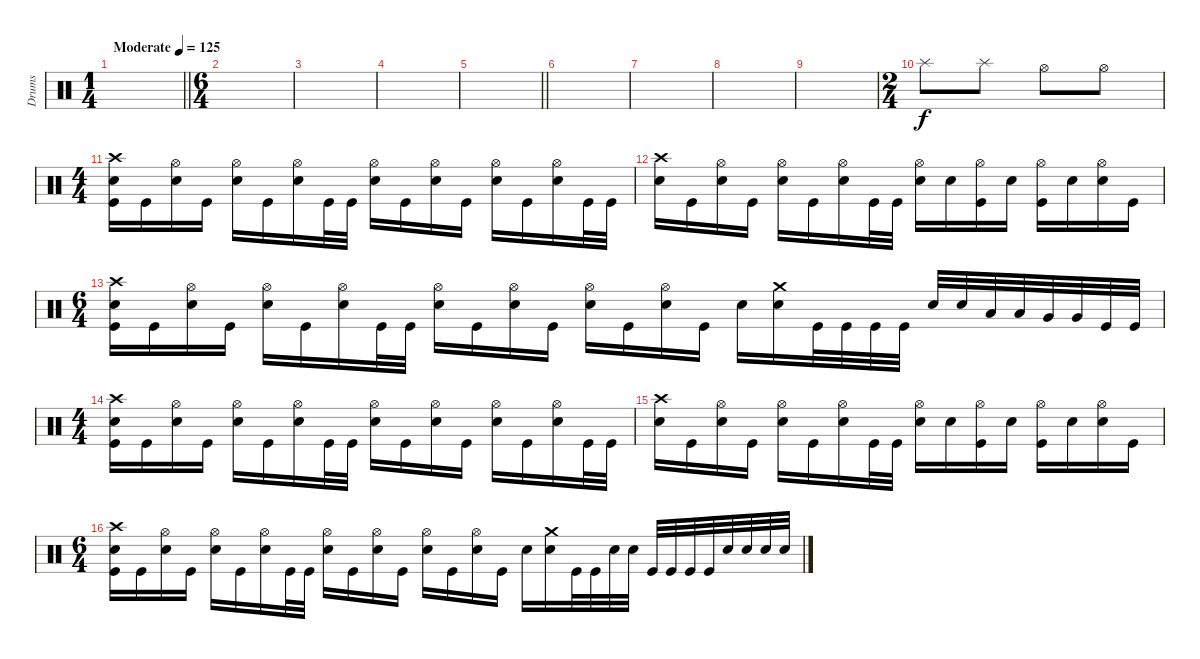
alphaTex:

\track ("Drums" "Drums") {instrument percussion}
\staff
\articulation defaults
\ts (1 4)
\tempo (125 "Moderate")
\clef neutral
\barLineRight lightlight
\ks c
|
\ts (6 4)
|
|
|
\barLineRight lightlight
|
|
|
|
|
\ts (2 4)
"Splash (hit)".8 "Splash (hit)".8 "Hi-Hat (open)".8 "Hi-Hat (open)".8 |
\ts (4 4)
("Crash high (hit)" "Electric Snare (hit)" "Kick (hit)").16 "Kick (hit)".16 ("Hi-Hat (open)" "Electric Snare (hit)").16 "Kick (hit)".16 ("Hi-Hat (open)" "Electric Snare (hit)").16 "Kick (hit)".16 ("Hi-Hat (open)" "Electric Snare (hit)").16 "Kick (hit)".32 "Kick (hit)".32 ("Hi-Hat (open)" "Electric Snare (hit)").16 "Kick (hit)".16 ("Hi-Hat (open)" "Electric Snare (hit)").16 "Kick (hit)".16 ("Hi-Hat (open)" "Electric Snare (hit)").16 "Kick (hit)".16 ("Hi-Hat (open)" "Electric Snare (hit)").16 "Kick (hit)".32 "Kick (hit)".32 |
("Crash high (hit)" "Electric Snare (hit)").16 "Kick (hit)".16 ("Hi-Hat (open)" "Electric Snare (hit)").16 "Kick (hit)".16 ("Hi-Hat (open)" "Electric Snare (hit)").16 "Kick (hit)".16 ("Hi-Hat (open)" "Electric Snare (hit)").16 "Kick (hit)".32 "Kick (hit)".32 ("Hi-Hat (open)" "Electric Snare (hit)").16 "Electric Snare (hit)".16 ("Hi-Hat (open)" "Kick (hit)").16 "Electric Snare (hit)".16 ("Hi-Hat (open)" "Kick (hit)").16 "Electric Snare (hit)".16 ("Hi-Hat (open)" "Electric Snare (hit)").16 "Kick (hit)".16 |
\ts (6 4)
("Crash high (hit)" "Electric Snare (hit)" "Kick (hit)").16 "Kick (hit)".16 ("Hi-Hat (open)" "Electric Snare (hit)").16 "Kick (hit)".16 ("Hi-Hat (open)" "Electric Snare (hit)").16 "Kick (hit)".16 ("Hi-Hat (open)" "Electric Snare (hit)").16 "Kick (hit)".32 "Kick (hit)".32 ("Hi-Hat (open)" "Electric Snare (hit)").16 "Kick (hit)".16 ("Hi-Hat (open)" "Electric Snare (hit)").16 "Kick (hit)".16 ("Hi-Hat (open)" "Electric Snare (hit)").16 "Kick (hit)".16 ("Hi-Hat (open)" "Electric Snare (hit)").16 "Kick (hit)".16 "Electric Snare (hit)".16 ("Crash medium (hit)" "Electric Snare (hit)").16 "Kick (hit)".32 "Kick (hit)".32 "Kick (hit)".32 "Kick (hit)".32 "Electric Snare (hit)".32 "Electric Snare (hit)".32 "Low Tom (hit)".32 "Low Tom (hit)".32 "Very Low Tom (hit)".32 "Very Low Tom (hit)".32 "Kick (hit)".32 "Kick (hit)".32 |
\ts (4 4)
("Crash high (hit)" "Electric Snare (hit)" "Kick (hit)").16 "Kick (hit)".16 ("Hi-Hat (open)" "Electric Snare (hit)").16 "Kick (hit)".16 ("Hi-Hat (open)" "Electric Snare (hit)").16 "Kick (hit)".16 ("Hi-Hat (open)" "Electric Snare (hit)").16 "Kick (hit)".32 "Kick (hit)".32 ("Hi-Hat (open)" "Electric Snare (hit)").16 "Kick (hit)".16 ("Hi-Hat (open)" "Electric Snare (hit)").16 "Kick (hit)".16 ("Hi-Hat (open)" "Electric Snare (hit)").16 "Kick (hit)".16 ("Hi-Hat (open)" "Electric Snare (hit)").16 "Kick (hit)".32 "Kick (hit)".32 |
("Crash high (hit)" "Electric Snare (hit)").16 "Kick (hit)".16 ("Hi-Hat (open)" "Electric Snare (hit)").16 "Kick (hit)".16 ("Hi-Hat (open)" "Electric Snare (hit)").16 "Kick (hit)".16 ("Hi-Hat (open)" "Electric Snare (hit)").16 "Kick (hit)".32 "Kick (hit)".32 ("Hi-Hat (open)" "Electric Snare (hit)").16 "Electric Snare (hit)".16 ("Hi-Hat (open)" "Kick (hit)").16 "Electric Snare (hit)".16 ("Hi-Hat (open)" "Kick (hit)").16 "Electric Snare (hit)".16 ("Hi-Hat (open)" "Electric Snare (hit)").16 "Kick (hit)".16 |
\ts (6 4)
("Crash high (hit)" "Electric Snare (hit)" "Kick (hit)").16 "Kick (hit)".16 ("Hi-Hat (open)" "Electric Snare (hit)").16 "Kick (hit)".16 ("Hi-Hat (open)" "Electric Snare (hit)").16 "Kick (hit)".16 ("Hi-Hat (open)" "Electric Snare (hit)").16 "Kick (hit)".32 "Kick (hit)".32 ("Hi-Hat (open)" "Electric Snare (hit)").16 "Kick (hit)".16 ("Hi-Hat (open)" "Electric Snare (hit)").16 "Kick (hit)".16 ("Hi-Hat (open)" "Electric Snare (hit)").16 "Kick (hit)".16 ("Hi-Hat (open)" "Electric Snare (hit)").16 "Kick (hit)".16 "Electric Snare (hit)".16 ("Crash medium (hit)" "Electric Snare (hit)").16 "Kick (hit)".32 "Kick (hit)".32 "Electric Snare (hit)".32 "Electric Snare (hit)".32 "Kick (hit)".32 "Kick (hit)".32 "Kick (hit)".32 "Kick (hit)".32 "Electric Snare (hit)".32 "Electric Snare (hit)".32 "Electric Snare (hit)".32 "Electric Snare (hit)".32
